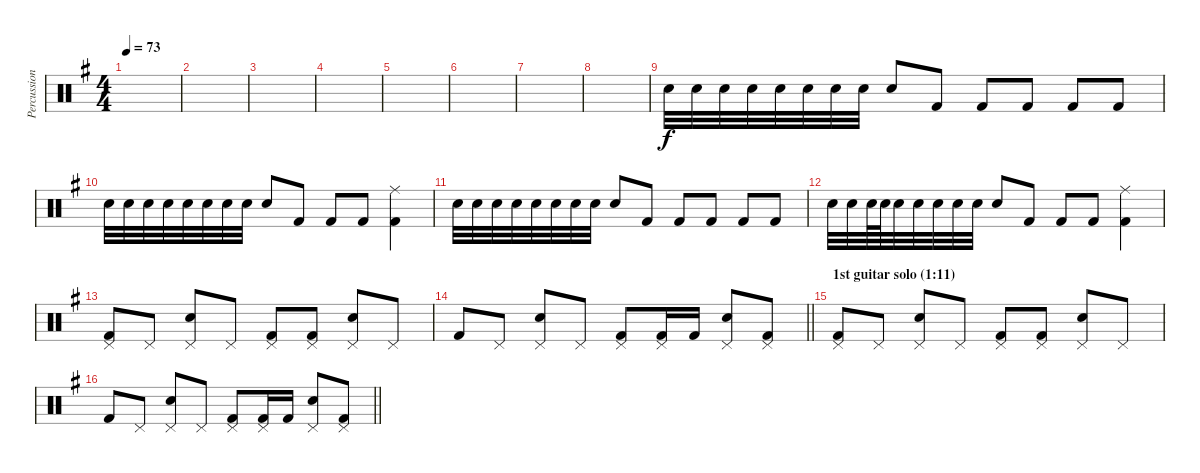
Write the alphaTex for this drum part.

\track ("Percussions" "Percussion") {instrument percussion}
\staff {score}
\articulation defaults
\ts (4 4)
\tempo 73
\clef neutral
\ks g
|
|
|
|
|
|
|
|
"Snare (hit) 2".32 "Snare (hit) 2".32 "Snare (hit) 2".32 "Snare (hit) 2".32 "Snare (hit) 2".32 "Snare (hit) 2".32 "Snare (hit) 2".32 "Snare (hit) 2".32 "Snare (hit) 2".8 "Kick (hit) 2".8 "Kick (hit) 2".8 "Kick (hit) 2".8 "Kick (hit) 2".8 "Kick (hit) 2".8 |
"Snare (hit) 2".32 "Snare (hit) 2".32 "Snare (hit) 2".32 "Snare (hit) 2".32 "Snare (hit) 2".32 "Snare (hit) 2".32 "Snare (hit) 2".32 "Snare (hit) 2".32 "Snare (hit) 2".8 "Kick (hit) 2".8 "Kick (hit) 2".8 "Kick (hit) 2".8 ("Ride (middle)" "Kick (hit) 2").4 |
"Snare (hit) 2".32 "Snare (hit) 2".32 "Snare (hit) 2".32 "Snare (hit) 2".32 "Snare (hit) 2".32 "Snare (hit) 2".32 "Snare (hit) 2".32 "Snare (hit) 2".32 "Snare (hit) 2".8 "Kick (hit) 2".8 "Kick (hit) 2".8 "Kick (hit) 2".8 "Kick (hit) 2".8 "Kick (hit) 2".8 |
"Snare (hit) 2".32 "Snare (hit) 2".32 "Snare (hit) 2".64 "Snare (hit) 2".64 "Snare (hit) 2".32 "Snare (hit) 2".32 "Snare (hit) 2".32 "Snare (hit) 2".32 "Snare (hit) 2".32 "Snare (hit) 2".8 "Kick (hit) 2".8 "Kick (hit) 2".8 "Kick (hit) 2".8 ("Ride (middle)" "Kick (hit) 2").4 |
("Pedal Hi-Hat (hit)" "Kick (hit) 2").8 "Pedal Hi-Hat (hit)".8 ("Pedal Hi-Hat (hit)" "Snare (hit) 2").8 "Pedal Hi-Hat (hit)".8 ("Pedal Hi-Hat (hit)" "Kick (hit) 2").8 ("Pedal Hi-Hat (hit)" "Kick (hit) 2").8 ("Pedal Hi-Hat (hit)" "Snare (hit) 2").8 "Pedal Hi-Hat (hit)".8 |
\barLineRight lightlight "Kick (hit) 2".8 "Pedal Hi-Hat (hit)".8
("Pedal Hi-Hat (hit)" "Snare (hit) 2").8 "Pedal Hi-Hat (hit)".8 ("Pedal Hi-Hat (hit)" "Kick (hit) 2").8 ("Pedal Hi-Hat (hit)" "Kick (hit) 2").16 "Kick (hit) 2".16 ("Pedal Hi-Hat (hit)" "Snare (hit) 2").8 ("Pedal Hi-Hat (hit)" "Kick (hit) 2").8 |
\section ("" "1st guitar solo (1:11)")
("Pedal Hi-Hat (hit)" "Kick (hit) 2").8 "Pedal Hi-Hat (hit)".8 ("Pedal Hi-Hat (hit)" "Snare (hit) 2").8 "Pedal Hi-Hat (hit)".8 ("Pedal Hi-Hat (hit)" "Kick (hit) 2").8 ("Pedal Hi-Hat (hit)" "Kick (hit) 2").8 ("Pedal Hi-Hat (hit)" "Snare (hit) 2").8 "Pedal Hi-Hat (hit)".8 |
\barLineRight lightlight "Kick (hit) 2".8 "Pedal Hi-Hat (hit)".8
("Pedal Hi-Hat (hit)" "Snare (hit) 2").8 "Pedal Hi-Hat (hit)".8 ("Pedal Hi-Hat (hit)" "Kick (hit) 2").8 ("Pedal Hi-Hat (hit)" "Kick (hit) 2").16 "Kick (hit) 2".16 ("Pedal Hi-Hat (hit)" "Snare (hit) 2").8 ("Pedal Hi-Hat (hit)" "Kick (hit) 2").8
